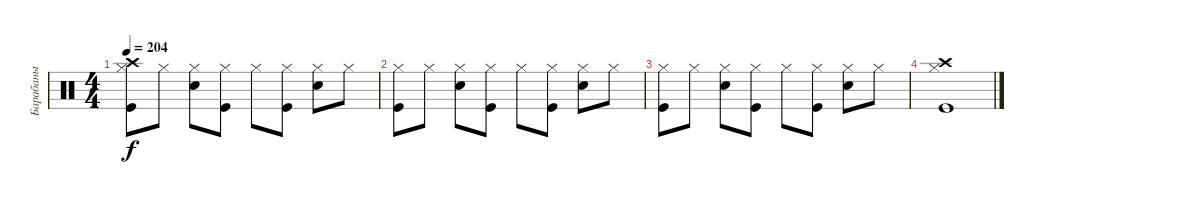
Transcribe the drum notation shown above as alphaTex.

\track ("Барабаны" "Барабаны") {instrument percussion}
\staff {score}
\articulation defaults
\ts (4 4)
\tempo 204
\clef neutral
\ks c
("Kick (hit)" "Hi-Hat (closed)" "Crash high (hit)").8{dy f} "Hi-Hat (closed)".8 ("Snare (hit) 2" "Hi-Hat (closed)").8 ("Kick (hit)" "Hi-Hat (closed)").8 "Hi-Hat (closed)".8 ("Kick (hit)" "Hi-Hat (closed)").8 ("Snare (hit) 2" "Hi-Hat (closed)").8 "Hi-Hat (closed)".8 |
("Kick (hit)" "Hi-Hat (closed)").8 "Hi-Hat (closed)".8 ("Snare (hit) 2" "Hi-Hat (closed)").8 ("Kick (hit)" "Hi-Hat (closed)").8 "Hi-Hat (closed)".8 ("Kick (hit)" "Hi-Hat (closed)").8 ("Snare (hit) 2" "Hi-Hat (closed)").8 "Hi-Hat (closed)".8 |
("Kick (hit)" "Hi-Hat (closed)").8 "Hi-Hat (closed)".8 ("Snare (hit) 2" "Hi-Hat (closed)").8 ("Kick (hit)" "Hi-Hat (closed)").8 "Hi-Hat (closed)".8 ("Kick (hit)" "Hi-Hat (closed)").8 ("Snare (hit) 2" "Hi-Hat (closed)").8 "Hi-Hat (closed)".8 |
("Kick (hit)" "Hi-Hat (closed)" "Crash high (hit)").1
